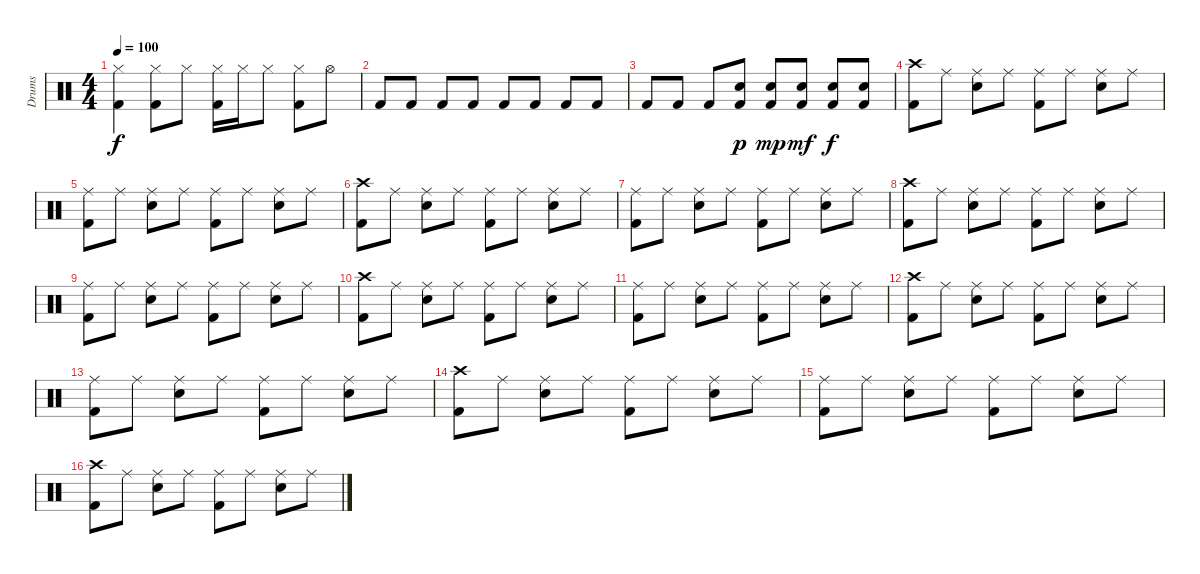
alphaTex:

\track ("Drums" "Drums") {instrument percussion}
\staff {score}
\articulation defaults
\ts (4 4)
\tempo 100
\clef neutral
\ks c
("Hi-Hat (closed)" "Kick (hit) 2").4{dy f} ("Hi-Hat (closed)" "Kick (hit) 2").8 "Hi-Hat (closed)".8 ("Hi-Hat (closed)" "Kick (hit) 2").16 "Hi-Hat (closed)".16 "Hi-Hat (closed)".8 ("Hi-Hat (closed)" "Kick (hit) 2").8 "Hi-Hat (open)".8 |
"Kick (hit) 2".8 "Kick (hit) 2".8 "Kick (hit) 2".8 "Kick (hit) 2".8 "Kick (hit) 2".8 "Kick (hit) 2".8 "Kick (hit) 2".8 "Kick (hit) 2".8 |
"Kick (hit) 2".8 "Kick (hit) 2".8 "Kick (hit) 2".8 ("Snare (hit) 2" "Kick (hit) 2").8{dy p} ("Snare (hit) 2" "Kick (hit) 2").8{dy mp} ("Snare (hit) 2" "Kick (hit) 2").8{dy mf} ("Snare (hit) 2" "Kick (hit) 2").8{dy f} ("Snare (hit) 2" "Kick (hit) 2").8 |
("Crash high (hit)" "Kick (hit) 2").8 "Ride (middle)".8 ("Ride (middle)" "Snare (hit) 2").8 "Ride (middle)".8 ("Ride (middle)" "Kick (hit) 2").8 "Ride (middle)".8 ("Ride (middle)" "Snare (hit) 2").8 "Ride (middle)".8 |
("Ride (middle)" "Kick (hit) 2").8 "Ride (middle)".8 ("Ride (middle)" "Snare (hit) 2").8 "Ride (middle)".8 ("Ride (middle)" "Kick (hit) 2").8 "Ride (middle)".8 ("Ride (middle)" "Snare (hit) 2").8 "Ride (middle)".8 |
("Crash high (hit)" "Kick (hit) 2").8 "Ride (middle)".8 ("Ride (middle)" "Snare (hit) 2").8 "Ride (middle)".8 ("Ride (middle)" "Kick (hit) 2").8 "Ride (middle)".8 ("Ride (middle)" "Snare (hit) 2").8 "Ride (middle)".8 |
("Ride (middle)" "Kick (hit) 2").8 "Ride (middle)".8 ("Ride (middle)" "Snare (hit) 2").8 "Ride (middle)".8 ("Ride (middle)" "Kick (hit) 2").8 "Ride (middle)".8 ("Ride (middle)" "Snare (hit) 2").8 "Ride (middle)".8 |
("Crash high (hit)" "Kick (hit) 2").8 "Ride (middle)".8 ("Ride (middle)" "Snare (hit) 2").8 "Ride (middle)".8 ("Ride (middle)" "Kick (hit) 2").8 "Ride (middle)".8 ("Ride (middle)" "Snare (hit) 2").8 "Ride (middle)".8 |
("Ride (middle)" "Kick (hit) 2").8 "Ride (middle)".8 ("Ride (middle)" "Snare (hit) 2").8 "Ride (middle)".8 ("Ride (middle)" "Kick (hit) 2").8 "Ride (middle)".8 ("Ride (middle)" "Snare (hit) 2").8 "Ride (middle)".8 |
("Crash high (hit)" "Kick (hit) 2").8 "Ride (middle)".8 ("Ride (middle)" "Snare (hit) 2").8 "Ride (middle)".8 ("Ride (middle)" "Kick (hit) 2").8 "Ride (middle)".8 ("Ride (middle)" "Snare (hit) 2").8 "Ride (middle)".8 |
("Ride (middle)" "Kick (hit) 2").8 "Ride (middle)".8 ("Ride (middle)" "Snare (hit) 2").8 "Ride (middle)".8 ("Ride (middle)" "Kick (hit) 2").8 "Ride (middle)".8 ("Ride (middle)" "Snare (hit) 2").8 "Ride (middle)".8 |
("Crash high (hit)" "Kick (hit) 2").8 "Ride (middle)".8 ("Ride (middle)" "Snare (hit) 2").8 "Ride (middle)".8 ("Ride (middle)" "Kick (hit) 2").8 "Ride (middle)".8 ("Ride (middle)" "Snare (hit) 2").8 "Ride (middle)".8 |
("Ride (middle)" "Kick (hit) 2").8 "Ride (middle)".8 ("Ride (middle)" "Snare (hit) 2").8 "Ride (middle)".8 ("Ride (middle)" "Kick (hit) 2").8 "Ride (middle)".8 ("Ride (middle)" "Snare (hit) 2").8 "Ride (middle)".8 |
("Crash high (hit)" "Kick (hit) 2").8 "Ride (middle)".8 ("Ride (middle)" "Snare (hit) 2").8 "Ride (middle)".8 ("Ride (middle)" "Kick (hit) 2").8 "Ride (middle)".8 ("Ride (middle)" "Snare (hit) 2").8 "Ride (middle)".8 |
("Ride (middle)" "Kick (hit) 2").8 "Ride (middle)".8 ("Ride (middle)" "Snare (hit) 2").8 "Ride (middle)".8 ("Ride (middle)" "Kick (hit) 2").8 "Ride (middle)".8 ("Ride (middle)" "Snare (hit) 2").8 "Ride (middle)".8 |
("Crash high (hit)" "Kick (hit) 2").8 "Ride (middle)".8 ("Ride (middle)" "Snare (hit) 2").8 "Ride (middle)".8 ("Ride (middle)" "Kick (hit) 2").8 "Ride (middle)".8 ("Ride (middle)" "Snare (hit) 2").8 "Ride (middle)".8
